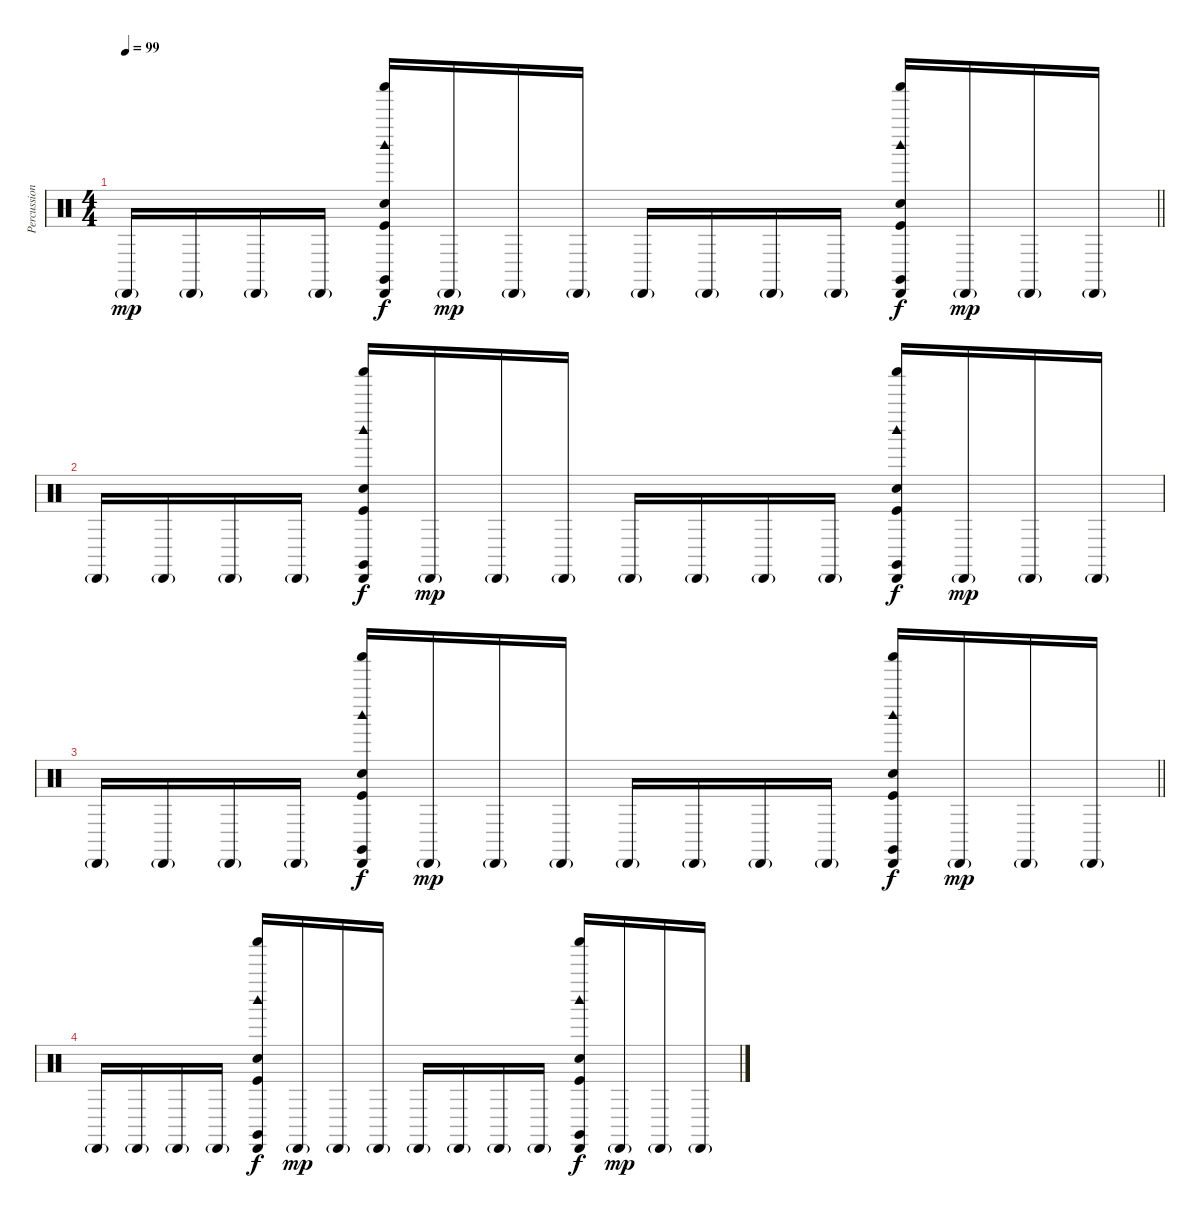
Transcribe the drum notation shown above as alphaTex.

\track ("Percussion" "Percussion") {instrument percussion}
\staff {score}
\articulation defaults
\ts (4 4)
\tempo 99
\clef neutral
\barLineRight lightlight
\ks c "Cabasa (hit)"{g}.16{dy mp} "Cabasa (hit)"{g}.16 "Cabasa (hit)"{g}.16 "Cabasa (hit)"{g}.16
("Cabasa (hit)" "Shaker (hit)" "Claves (hit)" "Woodblock high (hit)" "Hand Clap (hit)" "Kick (hit)").16{dy f} "Cabasa (hit)"{g}.16{dy mp} "Cabasa (hit)"{g}.16 "Cabasa (hit)"{g}.16 "Cabasa (hit)"{g}.16 "Cabasa (hit)"{g}.16 "Cabasa (hit)"{g}.16 "Cabasa (hit)"{g}.16 ("Cabasa (hit)" "Shaker (hit)" "Claves (hit)" "Woodblock high (hit)" "Hand Clap (hit)" "Kick (hit)").16{dy f} "Cabasa (hit)"{g}.16{dy mp} "Cabasa (hit)"{g}.16 "Cabasa (hit)"{g}.16 |
"Cabasa (hit)"{g}.16 "Cabasa (hit)"{g}.16 "Cabasa (hit)"{g}.16 "Cabasa (hit)"{g}.16 ("Cabasa (hit)" "Shaker (hit)" "Claves (hit)" "Woodblock high (hit)" "Hand Clap (hit)" "Kick (hit)").16{dy f} "Cabasa (hit)"{g}.16{dy mp} "Cabasa (hit)"{g}.16 "Cabasa (hit)"{g}.16 "Cabasa (hit)"{g}.16 "Cabasa (hit)"{g}.16 "Cabasa (hit)"{g}.16 "Cabasa (hit)"{g}.16 ("Cabasa (hit)" "Shaker (hit)" "Claves (hit)" "Woodblock high (hit)" "Hand Clap (hit)" "Kick (hit)").16{dy f} "Cabasa (hit)"{g}.16{dy mp} "Cabasa (hit)"{g}.16 "Cabasa (hit)"{g}.16 |
\barLineRight lightlight "Cabasa (hit)"{g}.16 "Cabasa (hit)"{g}.16 "Cabasa (hit)"{g}.16 "Cabasa (hit)"{g}.16
("Cabasa (hit)" "Shaker (hit)" "Claves (hit)" "Woodblock high (hit)" "Hand Clap (hit)" "Kick (hit)").16{dy f} "Cabasa (hit)"{g}.16{dy mp} "Cabasa (hit)"{g}.16 "Cabasa (hit)"{g}.16 "Cabasa (hit)"{g}.16 "Cabasa (hit)"{g}.16 "Cabasa (hit)"{g}.16 "Cabasa (hit)"{g}.16 ("Cabasa (hit)" "Shaker (hit)" "Claves (hit)" "Woodblock high (hit)" "Hand Clap (hit)" "Kick (hit)").16{dy f} "Cabasa (hit)"{g}.16{dy mp} "Cabasa (hit)"{g}.16 "Cabasa (hit)"{g}.16 |
"Cabasa (hit)"{g}.16 "Cabasa (hit)"{g}.16 "Cabasa (hit)"{g}.16 "Cabasa (hit)"{g}.16 ("Cabasa (hit)" "Shaker (hit)" "Claves (hit)" "Woodblock high (hit)" "Hand Clap (hit)" "Kick (hit)").16{dy f} "Cabasa (hit)"{g}.16{dy mp} "Cabasa (hit)"{g}.16 "Cabasa (hit)"{g}.16 "Cabasa (hit)"{g}.16 "Cabasa (hit)"{g}.16 "Cabasa (hit)"{g}.16 "Cabasa (hit)"{g}.16 ("Cabasa (hit)" "Shaker (hit)" "Claves (hit)" "Woodblock high (hit)" "Hand Clap (hit)" "Kick (hit)").16{dy f} "Cabasa (hit)"{g}.16{dy mp} "Cabasa (hit)"{g}.16 "Cabasa (hit)"{g}.16
